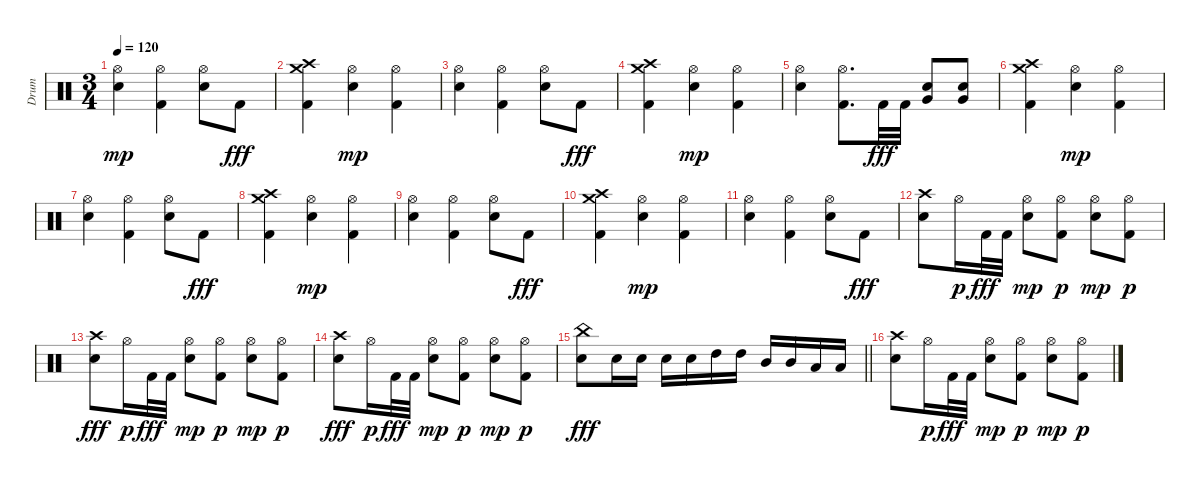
\track ("Drum" "Drum") {instrument percussion}
\staff {score}
\articulation defaults
\ts (3 4)
\tempo 120
\clef neutral
\ks c
("Electric Snare (hit)" "Hi-Hat (open)").4{dy mp} ("Kick (hit) 2" "Hi-Hat (open)").4 ("Electric Snare (hit)" "Hi-Hat (open)").8 "Kick (hit) 2".8{dy fff} |
("Kick (hit) 2" "Crash high (hit)" "Crash medium (hit)").4 ("Electric Snare (hit)" "Hi-Hat (open)").4{dy mp} ("Kick (hit) 2" "Hi-Hat (open)").4 |
("Electric Snare (hit)" "Hi-Hat (open)").4 ("Kick (hit) 2" "Hi-Hat (open)").4 ("Electric Snare (hit)" "Hi-Hat (open)").8 "Kick (hit) 2".8{dy fff} |
("Kick (hit) 2" "Crash high (hit)" "Crash medium (hit)").4 ("Electric Snare (hit)" "Hi-Hat (open)").4{dy mp} ("Kick (hit) 2" "Hi-Hat (open)").4 |
("Electric Snare (hit)" "Hi-Hat (open)").4 ("Kick (hit) 2" "Hi-Hat (open)").8{d} "Kick (hit) 2".32{dy fff} "Kick (hit) 2".32 ("Electric Snare (hit)" "Very Low Tom (hit)").8 ("Electric Snare (hit)" "Very Low Tom (hit)").8 |
("Kick (hit) 2" "Crash high (hit)" "Crash medium (hit)").4 ("Electric Snare (hit)" "Hi-Hat (open)").4{dy mp} ("Kick (hit) 2" "Hi-Hat (open)").4 |
("Electric Snare (hit)" "Hi-Hat (open)").4 ("Kick (hit) 2" "Hi-Hat (open)").4 ("Electric Snare (hit)" "Hi-Hat (open)").8 "Kick (hit) 2".8{dy fff} |
("Kick (hit) 2" "Crash high (hit)" "Crash medium (hit)").4 ("Electric Snare (hit)" "Hi-Hat (open)").4{dy mp} ("Kick (hit) 2" "Hi-Hat (open)").4 |
("Electric Snare (hit)" "Hi-Hat (open)").4 ("Kick (hit) 2" "Hi-Hat (open)").4 ("Electric Snare (hit)" "Hi-Hat (open)").8 "Kick (hit) 2".8{dy fff} |
("Kick (hit) 2" "Crash high (hit)" "Crash medium (hit)").4 ("Electric Snare (hit)" "Hi-Hat (open)").4{dy mp} ("Kick (hit) 2" "Hi-Hat (open)").4 |
("Electric Snare (hit)" "Hi-Hat (open)").4 ("Kick (hit) 2" "Hi-Hat (open)").4 ("Electric Snare (hit)" "Hi-Hat (open)").8 "Kick (hit) 2".8{dy fff} |
("Electric Snare (hit)" "Crash high (hit)").8 "Hi-Hat (open)".16{dy p} "Kick (hit) 2".32{dy fff} "Kick (hit) 2".32 ("Electric Snare (hit)" "Hi-Hat (open)").8{dy mp} ("Kick (hit) 2" "Hi-Hat (open)").8{dy p} ("Electric Snare (hit)" "Hi-Hat (open)").8{dy mp} ("Kick (hit) 2" "Hi-Hat (open)").8{dy p} |
("Electric Snare (hit)" "Crash high (hit)").8{dy fff} "Hi-Hat (open)".16{dy p} "Kick (hit) 2".32{dy fff} "Kick (hit) 2".32 ("Electric Snare (hit)" "Hi-Hat (open)").8{dy mp} ("Kick (hit) 2" "Hi-Hat (open)").8{dy p} ("Electric Snare (hit)" "Hi-Hat (open)").8{dy mp} ("Kick (hit) 2" "Hi-Hat (open)").8{dy p} |
("Electric Snare (hit)" "Crash high (hit)").8{dy fff} "Hi-Hat (open)".16{dy p} "Kick (hit) 2".32{dy fff} "Kick (hit) 2".32 ("Electric Snare (hit)" "Hi-Hat (open)").8{dy mp} ("Kick (hit) 2" "Hi-Hat (open)").8{dy p} ("Electric Snare (hit)" "Hi-Hat (open)").8{dy mp} ("Kick (hit) 2" "Hi-Hat (open)").8{dy p} |
\barLineRight lightlight
("Electric Snare (hit)" "China (hit)").8{dy fff} "Electric Snare (hit)".16 "Electric Snare (hit)".16 "Electric Snare (hit)".16 "Electric Snare (hit)".16 "High Tom (hit)".16 "High Tom (hit)".16 "Mid Tom (hit)".16 "Mid Tom (hit)".16 "Low Tom (hit)".16 "Low Tom (hit)".16 |
("Electric Snare (hit)" "Crash high (hit)").8 "Hi-Hat (open)".16{dy p} "Kick (hit) 2".32{dy fff} "Kick (hit) 2".32 ("Electric Snare (hit)" "Hi-Hat (open)").8{dy mp} ("Kick (hit) 2" "Hi-Hat (open)").8{dy p} ("Electric Snare (hit)" "Hi-Hat (open)").8{dy mp} ("Kick (hit) 2" "Hi-Hat (open)").8{dy p}
